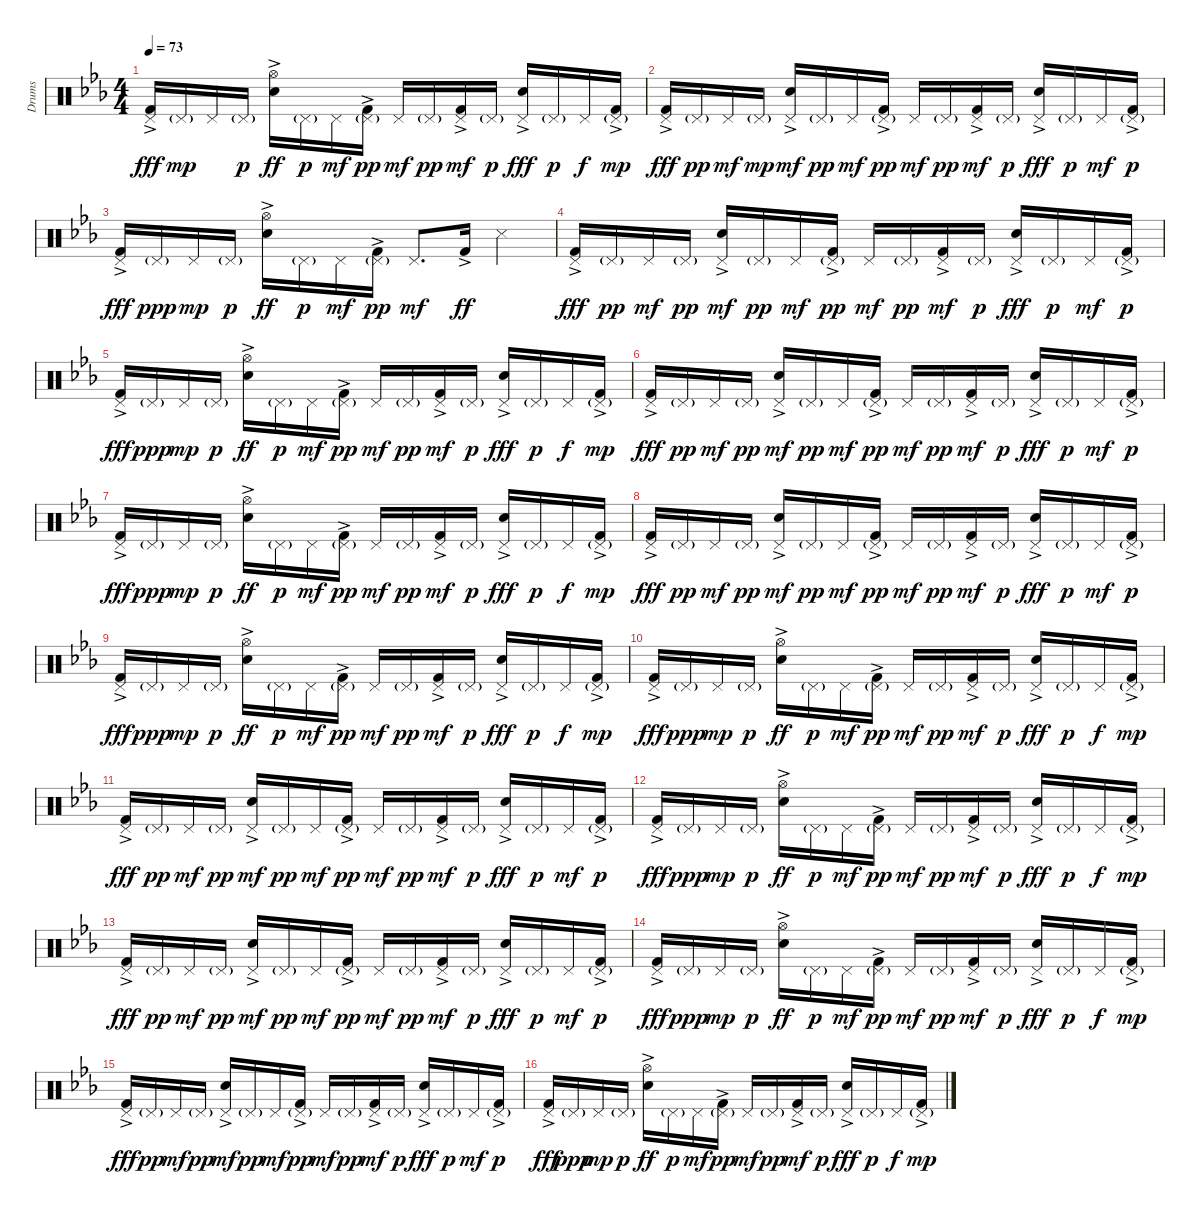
\track ("Drums" "Drums") {instrument percussion}
\staff {score}
\articulation defaults
\ts (4 4)
\tempo 73
\clef neutral
\ks eb
("Kick (hit) 2"{ac} "Pedal Hi-Hat (hit)").16{dy fff} "Pedal Hi-Hat (hit)"{g}.16{dy mp} "Pedal Hi-Hat (hit)".16 "Pedal Hi-Hat (hit)"{g}.16{dy p} ("Snare (hit) 2"{ac} "Hi-Hat (open)").16{dy ff} "Pedal Hi-Hat (hit)"{g}.16{dy p} "Pedal Hi-Hat (hit)".16{dy mf} ("Kick (hit) 2"{ac} "Pedal Hi-Hat (hit)"{g}).16{dy pp} "Pedal Hi-Hat (hit)".16{dy mf} "Pedal Hi-Hat (hit)"{g}.16{dy pp} ("Kick (hit) 2"{ac} "Pedal Hi-Hat (hit)").16{dy mf} "Pedal Hi-Hat (hit)"{g}.16{dy p} ("Snare (hit) 2"{ac} "Pedal Hi-Hat (hit)").16{dy fff} "Pedal Hi-Hat (hit)"{g}.16{dy p} "Pedal Hi-Hat (hit)".16{dy f} ("Kick (hit) 2"{ac} "Pedal Hi-Hat (hit)"{g}).16{dy mp} |
("Kick (hit) 2"{ac} "Pedal Hi-Hat (hit)").16{dy fff} "Pedal Hi-Hat (hit)"{g}.16{dy pp} "Pedal Hi-Hat (hit)".16{dy mf} "Pedal Hi-Hat (hit)"{g}.16{dy mp} ("Snare (hit) 2"{ac} "Pedal Hi-Hat (hit)").16{dy mf} "Pedal Hi-Hat (hit)"{g}.16{dy pp} "Pedal Hi-Hat (hit)".16{dy mf} ("Kick (hit) 2"{ac} "Pedal Hi-Hat (hit)"{g}).16{dy pp} "Pedal Hi-Hat (hit)".16{dy mf} "Pedal Hi-Hat (hit)"{g}.16{dy pp} ("Kick (hit) 2"{ac} "Pedal Hi-Hat (hit)").16{dy mf} "Pedal Hi-Hat (hit)"{g}.16{dy p} ("Snare (hit) 2"{ac} "Pedal Hi-Hat (hit)").16{dy fff} "Pedal Hi-Hat (hit)"{g}.16{dy p} "Pedal Hi-Hat (hit)".16{dy mf} ("Kick (hit) 2"{ac} "Pedal Hi-Hat (hit)"{g}).16{dy p} |
("Kick (hit) 2"{ac} "Pedal Hi-Hat (hit)").16{dy fff} "Pedal Hi-Hat (hit)"{g}.16{dy ppp} "Pedal Hi-Hat (hit)".16{dy mp} "Pedal Hi-Hat (hit)"{g}.16{dy p} ("Snare (hit) 2"{ac} "Hi-Hat (open)").16{dy ff} "Pedal Hi-Hat (hit)"{g}.16{dy p} "Pedal Hi-Hat (hit)".16{dy mf} ("Kick (hit) 2"{ac} "Pedal Hi-Hat (hit)"{g}).16{dy pp} "Pedal Hi-Hat (hit)".8{d dy mf} "Kick (hit) 2"{ac}.16{dy ff} "Snare (side stick) 3".4 |
("Kick (hit) 2"{ac} "Pedal Hi-Hat (hit)").16{dy fff} "Pedal Hi-Hat (hit)"{g}.16{dy pp} "Pedal Hi-Hat (hit)".16{dy mf} "Pedal Hi-Hat (hit)"{g}.16{dy pp} ("Snare (hit) 2"{ac} "Pedal Hi-Hat (hit)").16{dy mf} "Pedal Hi-Hat (hit)"{g}.16{dy pp} "Pedal Hi-Hat (hit)".16{dy mf} ("Kick (hit) 2"{ac} "Pedal Hi-Hat (hit)"{g}).16{dy pp} "Pedal Hi-Hat (hit)".16{dy mf} "Pedal Hi-Hat (hit)"{g}.16{dy pp} ("Kick (hit) 2"{ac} "Pedal Hi-Hat (hit)").16{dy mf} "Pedal Hi-Hat (hit)"{g}.16{dy p} ("Snare (hit) 2"{ac} "Pedal Hi-Hat (hit)").16{dy fff} "Pedal Hi-Hat (hit)"{g}.16{dy p} "Pedal Hi-Hat (hit)".16{dy mf} ("Kick (hit) 2"{ac} "Pedal Hi-Hat (hit)"{g}).16{dy p} |
("Kick (hit) 2"{ac} "Pedal Hi-Hat (hit)").16{dy fff} "Pedal Hi-Hat (hit)"{g}.16{dy ppp} "Pedal Hi-Hat (hit)".16{dy mp} "Pedal Hi-Hat (hit)"{g}.16{dy p} ("Snare (hit) 2"{ac} "Hi-Hat (open)").16{dy ff} "Pedal Hi-Hat (hit)"{g}.16{dy p} "Pedal Hi-Hat (hit)".16{dy mf} ("Kick (hit) 2"{ac} "Pedal Hi-Hat (hit)"{g}).16{dy pp} "Pedal Hi-Hat (hit)".16{dy mf} "Pedal Hi-Hat (hit)"{g}.16{dy pp} ("Kick (hit) 2"{ac} "Pedal Hi-Hat (hit)").16{dy mf} "Pedal Hi-Hat (hit)"{g}.16{dy p} ("Snare (hit) 2"{ac} "Pedal Hi-Hat (hit)").16{dy fff} "Pedal Hi-Hat (hit)"{g}.16{dy p} "Pedal Hi-Hat (hit)".16{dy f} ("Kick (hit) 2"{ac} "Pedal Hi-Hat (hit)"{g}).16{dy mp} |
("Kick (hit) 2"{ac} "Pedal Hi-Hat (hit)").16{dy fff} "Pedal Hi-Hat (hit)"{g}.16{dy pp} "Pedal Hi-Hat (hit)".16{dy mf} "Pedal Hi-Hat (hit)"{g}.16{dy pp} ("Snare (hit) 2"{ac} "Pedal Hi-Hat (hit)").16{dy mf} "Pedal Hi-Hat (hit)"{g}.16{dy pp} "Pedal Hi-Hat (hit)".16{dy mf} ("Kick (hit) 2"{ac} "Pedal Hi-Hat (hit)"{g}).16{dy pp} "Pedal Hi-Hat (hit)".16{dy mf} "Pedal Hi-Hat (hit)"{g}.16{dy pp} ("Kick (hit) 2"{ac} "Pedal Hi-Hat (hit)").16{dy mf} "Pedal Hi-Hat (hit)"{g}.16{dy p} ("Snare (hit) 2"{ac} "Pedal Hi-Hat (hit)").16{dy fff} "Pedal Hi-Hat (hit)"{g}.16{dy p} "Pedal Hi-Hat (hit)".16{dy mf} ("Kick (hit) 2"{ac} "Pedal Hi-Hat (hit)"{g}).16{dy p} |
("Kick (hit) 2"{ac} "Pedal Hi-Hat (hit)").16{dy fff} "Pedal Hi-Hat (hit)"{g}.16{dy ppp} "Pedal Hi-Hat (hit)".16{dy mp} "Pedal Hi-Hat (hit)"{g}.16{dy p} ("Snare (hit) 2"{ac} "Hi-Hat (open)").16{dy ff} "Pedal Hi-Hat (hit)"{g}.16{dy p} "Pedal Hi-Hat (hit)".16{dy mf} ("Kick (hit) 2"{ac} "Pedal Hi-Hat (hit)"{g}).16{dy pp} "Pedal Hi-Hat (hit)".16{dy mf} "Pedal Hi-Hat (hit)"{g}.16{dy pp} ("Kick (hit) 2"{ac} "Pedal Hi-Hat (hit)").16{dy mf} "Pedal Hi-Hat (hit)"{g}.16{dy p} ("Snare (hit) 2"{ac} "Pedal Hi-Hat (hit)").16{dy fff} "Pedal Hi-Hat (hit)"{g}.16{dy p} "Pedal Hi-Hat (hit)".16{dy f} ("Kick (hit) 2"{ac} "Pedal Hi-Hat (hit)"{g}).16{dy mp} |
("Kick (hit) 2"{ac} "Pedal Hi-Hat (hit)").16{dy fff} "Pedal Hi-Hat (hit)"{g}.16{dy pp} "Pedal Hi-Hat (hit)".16{dy mf} "Pedal Hi-Hat (hit)"{g}.16{dy pp} ("Snare (hit) 2"{ac} "Pedal Hi-Hat (hit)").16{dy mf} "Pedal Hi-Hat (hit)"{g}.16{dy pp} "Pedal Hi-Hat (hit)".16{dy mf} ("Kick (hit) 2"{ac} "Pedal Hi-Hat (hit)"{g}).16{dy pp} "Pedal Hi-Hat (hit)".16{dy mf} "Pedal Hi-Hat (hit)"{g}.16{dy pp} ("Kick (hit) 2"{ac} "Pedal Hi-Hat (hit)").16{dy mf} "Pedal Hi-Hat (hit)"{g}.16{dy p} ("Snare (hit) 2"{ac} "Pedal Hi-Hat (hit)").16{dy fff} "Pedal Hi-Hat (hit)"{g}.16{dy p} "Pedal Hi-Hat (hit)".16{dy mf} ("Kick (hit) 2"{ac} "Pedal Hi-Hat (hit)"{g}).16{dy p} |
("Kick (hit) 2"{ac} "Pedal Hi-Hat (hit)").16{dy fff} "Pedal Hi-Hat (hit)"{g}.16{dy ppp} "Pedal Hi-Hat (hit)".16{dy mp} "Pedal Hi-Hat (hit)"{g}.16{dy p} ("Snare (hit) 2"{ac} "Hi-Hat (open)").16{dy ff} "Pedal Hi-Hat (hit)"{g}.16{dy p} "Pedal Hi-Hat (hit)".16{dy mf} ("Kick (hit) 2"{ac} "Pedal Hi-Hat (hit)"{g}).16{dy pp} "Pedal Hi-Hat (hit)".16{dy mf} "Pedal Hi-Hat (hit)"{g}.16{dy pp} ("Kick (hit) 2"{ac} "Pedal Hi-Hat (hit)").16{dy mf} "Pedal Hi-Hat (hit)"{g}.16{dy p} ("Snare (hit) 2"{ac} "Pedal Hi-Hat (hit)").16{dy fff} "Pedal Hi-Hat (hit)"{g}.16{dy p} "Pedal Hi-Hat (hit)".16{dy f} ("Kick (hit) 2"{ac} "Pedal Hi-Hat (hit)"{g}).16{dy mp} |
("Kick (hit) 2"{ac} "Pedal Hi-Hat (hit)").16{dy fff} "Pedal Hi-Hat (hit)"{g}.16{dy ppp} "Pedal Hi-Hat (hit)".16{dy mp} "Pedal Hi-Hat (hit)"{g}.16{dy p} ("Snare (hit) 2"{ac} "Hi-Hat (open)").16{dy ff} "Pedal Hi-Hat (hit)"{g}.16{dy p} "Pedal Hi-Hat (hit)".16{dy mf} ("Kick (hit) 2"{ac} "Pedal Hi-Hat (hit)"{g}).16{dy pp} "Pedal Hi-Hat (hit)".16{dy mf} "Pedal Hi-Hat (hit)"{g}.16{dy pp} ("Kick (hit) 2"{ac} "Pedal Hi-Hat (hit)").16{dy mf} "Pedal Hi-Hat (hit)"{g}.16{dy p} ("Snare (hit) 2"{ac} "Pedal Hi-Hat (hit)").16{dy fff} "Pedal Hi-Hat (hit)"{g}.16{dy p} "Pedal Hi-Hat (hit)".16{dy f} ("Kick (hit) 2"{ac} "Pedal Hi-Hat (hit)"{g}).16{dy mp} |
("Kick (hit) 2"{ac} "Pedal Hi-Hat (hit)").16{dy fff} "Pedal Hi-Hat (hit)"{g}.16{dy pp} "Pedal Hi-Hat (hit)".16{dy mf} "Pedal Hi-Hat (hit)"{g}.16{dy pp} ("Snare (hit) 2"{ac} "Pedal Hi-Hat (hit)").16{dy mf} "Pedal Hi-Hat (hit)"{g}.16{dy pp} "Pedal Hi-Hat (hit)".16{dy mf} ("Kick (hit) 2"{ac} "Pedal Hi-Hat (hit)"{g}).16{dy pp} "Pedal Hi-Hat (hit)".16{dy mf} "Pedal Hi-Hat (hit)"{g}.16{dy pp} ("Kick (hit) 2"{ac} "Pedal Hi-Hat (hit)").16{dy mf} "Pedal Hi-Hat (hit)"{g}.16{dy p} ("Snare (hit) 2"{ac} "Pedal Hi-Hat (hit)").16{dy fff} "Pedal Hi-Hat (hit)"{g}.16{dy p} "Pedal Hi-Hat (hit)".16{dy mf} ("Kick (hit) 2"{ac} "Pedal Hi-Hat (hit)"{g}).16{dy p} |
("Kick (hit) 2"{ac} "Pedal Hi-Hat (hit)").16{dy fff} "Pedal Hi-Hat (hit)"{g}.16{dy ppp} "Pedal Hi-Hat (hit)".16{dy mp} "Pedal Hi-Hat (hit)"{g}.16{dy p} ("Snare (hit) 2"{ac} "Hi-Hat (open)").16{dy ff} "Pedal Hi-Hat (hit)"{g}.16{dy p} "Pedal Hi-Hat (hit)".16{dy mf} ("Kick (hit) 2"{ac} "Pedal Hi-Hat (hit)"{g}).16{dy pp} "Pedal Hi-Hat (hit)".16{dy mf} "Pedal Hi-Hat (hit)"{g}.16{dy pp} ("Kick (hit) 2"{ac} "Pedal Hi-Hat (hit)").16{dy mf} "Pedal Hi-Hat (hit)"{g}.16{dy p} ("Snare (hit) 2"{ac} "Pedal Hi-Hat (hit)").16{dy fff} "Pedal Hi-Hat (hit)"{g}.16{dy p} "Pedal Hi-Hat (hit)".16{dy f} ("Kick (hit) 2"{ac} "Pedal Hi-Hat (hit)"{g}).16{dy mp} |
("Kick (hit) 2"{ac} "Pedal Hi-Hat (hit)").16{dy fff} "Pedal Hi-Hat (hit)"{g}.16{dy pp} "Pedal Hi-Hat (hit)".16{dy mf} "Pedal Hi-Hat (hit)"{g}.16{dy pp} ("Snare (hit) 2"{ac} "Pedal Hi-Hat (hit)").16{dy mf} "Pedal Hi-Hat (hit)"{g}.16{dy pp} "Pedal Hi-Hat (hit)".16{dy mf} ("Kick (hit) 2"{ac} "Pedal Hi-Hat (hit)"{g}).16{dy pp} "Pedal Hi-Hat (hit)".16{dy mf} "Pedal Hi-Hat (hit)"{g}.16{dy pp} ("Kick (hit) 2"{ac} "Pedal Hi-Hat (hit)").16{dy mf} "Pedal Hi-Hat (hit)"{g}.16{dy p} ("Snare (hit) 2"{ac} "Pedal Hi-Hat (hit)").16{dy fff} "Pedal Hi-Hat (hit)"{g}.16{dy p} "Pedal Hi-Hat (hit)".16{dy mf} ("Kick (hit) 2"{ac} "Pedal Hi-Hat (hit)"{g}).16{dy p} |
("Kick (hit) 2"{ac} "Pedal Hi-Hat (hit)").16{dy fff} "Pedal Hi-Hat (hit)"{g}.16{dy ppp} "Pedal Hi-Hat (hit)".16{dy mp} "Pedal Hi-Hat (hit)"{g}.16{dy p} ("Snare (hit) 2"{ac} "Hi-Hat (open)").16{dy ff} "Pedal Hi-Hat (hit)"{g}.16{dy p} "Pedal Hi-Hat (hit)".16{dy mf} ("Kick (hit) 2"{ac} "Pedal Hi-Hat (hit)"{g}).16{dy pp} "Pedal Hi-Hat (hit)".16{dy mf} "Pedal Hi-Hat (hit)"{g}.16{dy pp} ("Kick (hit) 2"{ac} "Pedal Hi-Hat (hit)").16{dy mf} "Pedal Hi-Hat (hit)"{g}.16{dy p} ("Snare (hit) 2"{ac} "Pedal Hi-Hat (hit)").16{dy fff} "Pedal Hi-Hat (hit)"{g}.16{dy p} "Pedal Hi-Hat (hit)".16{dy f} ("Kick (hit) 2"{ac} "Pedal Hi-Hat (hit)"{g}).16{dy mp} |
("Kick (hit) 2"{ac} "Pedal Hi-Hat (hit)").16{dy fff} "Pedal Hi-Hat (hit)"{g}.16{dy pp} "Pedal Hi-Hat (hit)".16{dy mf} "Pedal Hi-Hat (hit)"{g}.16{dy pp} ("Snare (hit) 2"{ac} "Pedal Hi-Hat (hit)").16{dy mf} "Pedal Hi-Hat (hit)"{g}.16{dy pp} "Pedal Hi-Hat (hit)".16{dy mf} ("Kick (hit) 2"{ac} "Pedal Hi-Hat (hit)"{g}).16{dy pp} "Pedal Hi-Hat (hit)".16{dy mf} "Pedal Hi-Hat (hit)"{g}.16{dy pp} ("Kick (hit) 2"{ac} "Pedal Hi-Hat (hit)").16{dy mf} "Pedal Hi-Hat (hit)"{g}.16{dy p} ("Snare (hit) 2"{ac} "Pedal Hi-Hat (hit)").16{dy fff} "Pedal Hi-Hat (hit)"{g}.16{dy p} "Pedal Hi-Hat (hit)".16{dy mf} ("Kick (hit) 2"{ac} "Pedal Hi-Hat (hit)"{g}).16{dy p} |
("Kick (hit) 2"{ac} "Pedal Hi-Hat (hit)").16{dy fff} "Pedal Hi-Hat (hit)"{g}.16{dy ppp} "Pedal Hi-Hat (hit)".16{dy mp} "Pedal Hi-Hat (hit)"{g}.16{dy p} ("Snare (hit) 2"{ac} "Hi-Hat (open)").16{dy ff} "Pedal Hi-Hat (hit)"{g}.16{dy p} "Pedal Hi-Hat (hit)".16{dy mf} ("Kick (hit) 2"{ac} "Pedal Hi-Hat (hit)"{g}).16{dy pp} "Pedal Hi-Hat (hit)".16{dy mf} "Pedal Hi-Hat (hit)"{g}.16{dy pp} ("Kick (hit) 2"{ac} "Pedal Hi-Hat (hit)").16{dy mf} "Pedal Hi-Hat (hit)"{g}.16{dy p} ("Snare (hit) 2"{ac} "Pedal Hi-Hat (hit)").16{dy fff} "Pedal Hi-Hat (hit)"{g}.16{dy p} "Pedal Hi-Hat (hit)".16{dy f} ("Kick (hit) 2"{ac} "Pedal Hi-Hat (hit)"{g}).16{dy mp}
